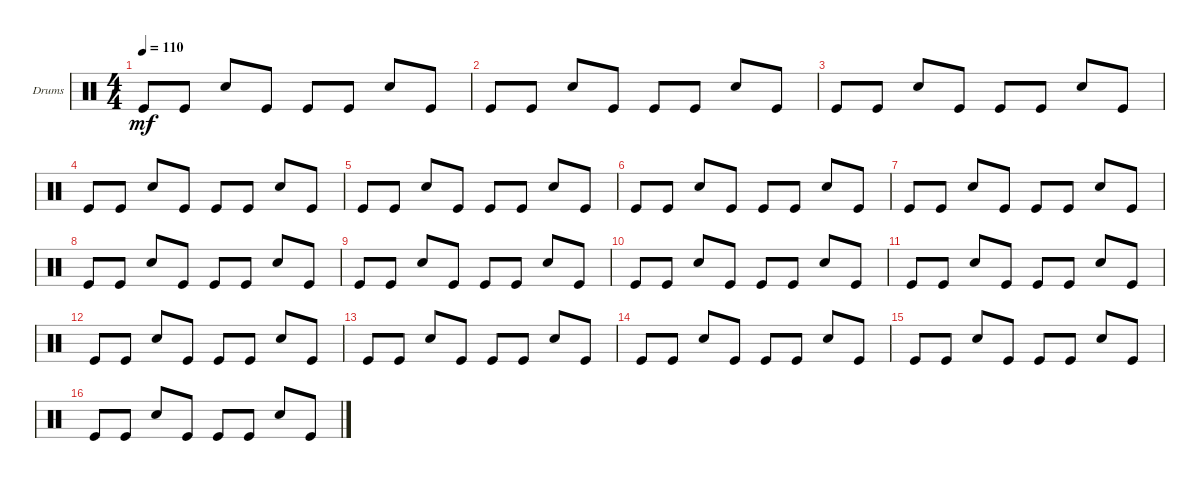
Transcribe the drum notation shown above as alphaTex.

\defaultSystemsLayout 4
\bracketExtendMode groupsimilarinstruments
\firstSystemTrackNameOrientation horizontal
\otherSystemsTrackNameOrientation horizontal
\track ("Tico Torres" "Drums") {instrument percussion}
\staff {score}
\articulation defaults
\ts (4 4)
\tempo 110
\clef neutral
\ks c "Kick (hit)".8{dy mf} "Kick (hit)".8 "Snare (hit) 2".8 "Kick (hit)".8 "Kick (hit)".8 "Kick (hit)".8 "Snare (hit) 2".8 "Kick (hit)".8
|
"Kick (hit)".8 "Kick (hit)".8 "Snare (hit) 2".8 "Kick (hit)".8 "Kick (hit)".8 "Kick (hit)".8 "Snare (hit) 2".8 "Kick (hit)".8 |
"Kick (hit)".8 "Kick (hit)".8 "Snare (hit) 2".8 "Kick (hit)".8 "Kick (hit)".8 "Kick (hit)".8 "Snare (hit) 2".8 "Kick (hit)".8 |
"Kick (hit)".8 "Kick (hit)".8 "Snare (hit) 2".8 "Kick (hit)".8 "Kick (hit)".8 "Kick (hit)".8 "Snare (hit) 2".8 "Kick (hit)".8 |
"Kick (hit)".8 "Kick (hit)".8 "Snare (hit) 2".8 "Kick (hit)".8 "Kick (hit)".8 "Kick (hit)".8 "Snare (hit) 2".8 "Kick (hit)".8 |
"Kick (hit)".8 "Kick (hit)".8 "Snare (hit) 2".8 "Kick (hit)".8 "Kick (hit)".8 "Kick (hit)".8 "Snare (hit) 2".8 "Kick (hit)".8 |
"Kick (hit)".8 "Kick (hit)".8 "Snare (hit) 2".8 "Kick (hit)".8 "Kick (hit)".8 "Kick (hit)".8 "Snare (hit) 2".8 "Kick (hit)".8 |
"Kick (hit)".8 "Kick (hit)".8 "Snare (hit) 2".8 "Kick (hit)".8 "Kick (hit)".8 "Kick (hit)".8 "Snare (hit) 2".8 "Kick (hit)".8 |
"Kick (hit)".8 "Kick (hit)".8 "Snare (hit) 2".8 "Kick (hit)".8 "Kick (hit)".8 "Kick (hit)".8 "Snare (hit) 2".8 "Kick (hit)".8 |
"Kick (hit)".8 "Kick (hit)".8 "Snare (hit) 2".8 "Kick (hit)".8 "Kick (hit)".8 "Kick (hit)".8 "Snare (hit) 2".8 "Kick (hit)".8 |
"Kick (hit)".8 "Kick (hit)".8 "Snare (hit) 2".8 "Kick (hit)".8 "Kick (hit)".8 "Kick (hit)".8 "Snare (hit) 2".8 "Kick (hit)".8 |
"Kick (hit)".8 "Kick (hit)".8 "Snare (hit) 2".8 "Kick (hit)".8 "Kick (hit)".8 "Kick (hit)".8 "Snare (hit) 2".8 "Kick (hit)".8 |
"Kick (hit)".8 "Kick (hit)".8 "Snare (hit) 2".8 "Kick (hit)".8 "Kick (hit)".8 "Kick (hit)".8 "Snare (hit) 2".8 "Kick (hit)".8 |
"Kick (hit)".8 "Kick (hit)".8 "Snare (hit) 2".8 "Kick (hit)".8 "Kick (hit)".8 "Kick (hit)".8 "Snare (hit) 2".8 "Kick (hit)".8 |
"Kick (hit)".8 "Kick (hit)".8 "Snare (hit) 2".8 "Kick (hit)".8 "Kick (hit)".8 "Kick (hit)".8 "Snare (hit) 2".8 "Kick (hit)".8 |
"Kick (hit)".8 "Kick (hit)".8 "Snare (hit) 2".8 "Kick (hit)".8 "Kick (hit)".8 "Kick (hit)".8 "Snare (hit) 2".8 "Kick (hit)".8
